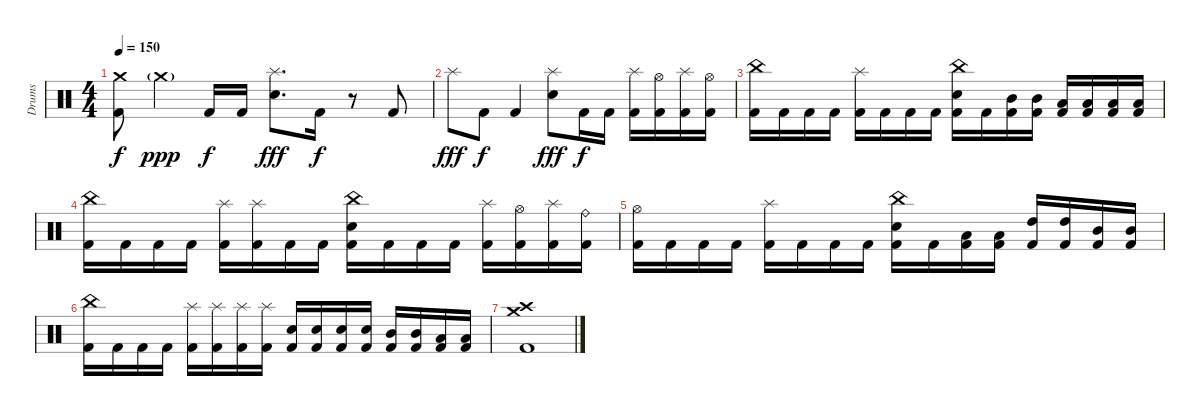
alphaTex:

\track ("Drums" "Drums") {instrument percussion}
\staff {score}
\articulation defaults
\ts (4 4)
\tempo 150
\clef neutral
\ks c
("Crash medium (hit)" "Kick (hit) 2").8{dy f} "Crash medium (hit)"{g}.4{dy ppp} "Kick (hit) 2".16{dy f} "Kick (hit) 2".16 ("Splash (hit)" "Electric Snare (hit)").8{d dy fff} "Kick (hit) 2".16{dy f} r.8 "Kick (hit) 2".8 |
"Splash (hit)".8{dy fff} "Kick (hit) 2".8{dy f} "Kick (hit) 2".4 ("Splash (hit)" "Electric Snare (hit)").8{dy fff} "Kick (hit) 2".16{dy f} "Kick (hit) 2".16 ("Splash (hit)" "Kick (hit) 2").16 ("Hi-Hat (open)" "Kick (hit) 2").16 ("Splash (hit)" "Kick (hit) 2").16 ("Hi-Hat (open)" "Kick (hit) 2").16 |
("China (hit)" "Kick (hit) 2").16 "Kick (hit) 2".16 "Kick (hit) 2".16 "Kick (hit) 2".16 ("Splash (hit)" "Kick (hit) 2").16 "Kick (hit) 2".16 "Kick (hit) 2".16 "Kick (hit) 2".16 ("China (hit)" "Electric Snare (hit)" "Kick (hit) 2").16 "Kick (hit) 2".16 ("Mid Tom (hit)" "Kick (hit) 2").16 ("Mid Tom (hit)" "Kick (hit) 2").16 ("Low Tom (hit)" "Kick (hit) 2").16 ("Low Tom (hit)" "Kick (hit) 2").16 ("Low Tom (hit)" "Kick (hit) 2").16 ("Low Tom (hit)" "Kick (hit) 2").16 |
("China (hit)" "Kick (hit) 2").16 "Kick (hit) 2".16 "Kick (hit) 2".16 "Kick (hit) 2".16 ("Splash (hit)" "Kick (hit) 2").16 ("Splash (hit)" "Kick (hit) 2").16 "Kick (hit) 2".16 "Kick (hit) 2".16 ("China (hit)" "Electric Snare (hit)" "Kick (hit) 2").16 "Kick (hit) 2".16 "Kick (hit) 2".16 "Kick (hit) 2".16 ("Splash (hit)" "Kick (hit) 2").16 ("Hi-Hat (open)" "Kick (hit) 2").16 ("Splash (hit)" "Kick (hit) 2").16 ("Ride (bell)" "Kick (hit) 2").16 |
("Hi-Hat (open)" "Kick (hit) 2").16 "Kick (hit) 2".16 "Kick (hit) 2".16 "Kick (hit) 2".16 ("Splash (hit)" "Kick (hit) 2").16 "Kick (hit) 2".16 "Kick (hit) 2".16 "Kick (hit) 2".16 ("China (hit)" "Electric Snare (hit)" "Kick (hit) 2").16 "Kick (hit) 2".16 ("Low Tom (hit)" "Kick (hit) 2").16 ("Low Tom (hit)" "Kick (hit) 2").16 ("High Tom (hit)" "Kick (hit) 2").16 ("High Tom (hit)" "Kick (hit) 2").16 ("Mid Tom (hit)" "Kick (hit) 2").16 ("Mid Tom (hit)" "Kick (hit) 2").16 |
("China (hit)" "Kick (hit) 2").16 "Kick (hit) 2".16 "Kick (hit) 2".16 "Kick (hit) 2".16 ("Splash (hit)" "Kick (hit) 2").16 ("Splash (hit)" "Kick (hit) 2").16 ("Splash (hit)" "Kick (hit) 2").16 ("Splash (hit)" "Kick (hit) 2").16 ("Electric Snare (hit)" "Kick (hit) 2").16 ("Electric Snare (hit)" "Kick (hit) 2").16 ("Electric Snare (hit)" "Kick (hit) 2").16 ("Electric Snare (hit)" "Kick (hit) 2").16 ("Mid Tom (hit)" "Kick (hit) 2").16 ("Mid Tom (hit)" "Kick (hit) 2").16 ("Low Tom (hit)" "Kick (hit) 2").16 ("Low Tom (hit)" "Kick (hit) 2").16 |
("Crash medium (hit)" "Crash high (hit)" "Kick (hit) 2").1
